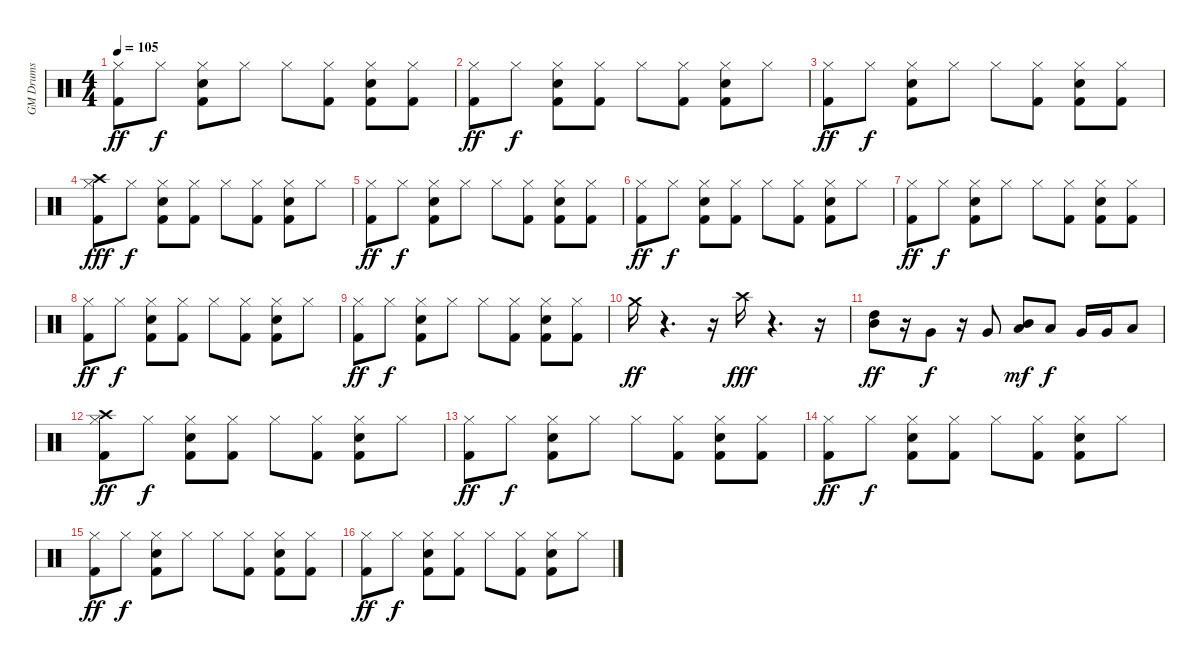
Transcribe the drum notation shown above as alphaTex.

\track ("GM Drums" "GM Drums") {instrument percussion}
\staff {score}
\articulation defaults
\ts (4 4)
\tempo 105
\clef neutral
\ks c
("Kick (hit) 2" "Hi-Hat (closed)").8{dy ff} "Hi-Hat (closed)".8{dy f} ("Kick (hit) 2" "Electric Snare (hit)" "Hi-Hat (closed)").8 "Hi-Hat (closed)".8 "Hi-Hat (closed)".8 ("Kick (hit) 2" "Hi-Hat (closed)").8 ("Kick (hit) 2" "Electric Snare (hit)" "Hi-Hat (closed)").8 ("Kick (hit) 2" "Hi-Hat (closed)").8 |
("Kick (hit) 2" "Hi-Hat (closed)").8{dy ff} "Hi-Hat (closed)".8{dy f} ("Kick (hit) 2" "Electric Snare (hit)" "Hi-Hat (closed)").8 ("Kick (hit) 2" "Hi-Hat (closed)").8 "Hi-Hat (closed)".8 ("Kick (hit) 2" "Hi-Hat (closed)").8 ("Kick (hit) 2" "Electric Snare (hit)" "Hi-Hat (closed)").8 "Hi-Hat (closed)".8 |
("Kick (hit) 2" "Hi-Hat (closed)").8{dy ff} "Hi-Hat (closed)".8{dy f} ("Kick (hit) 2" "Electric Snare (hit)" "Hi-Hat (closed)").8 "Hi-Hat (closed)".8 "Hi-Hat (closed)".8 ("Kick (hit) 2" "Hi-Hat (closed)").8 ("Kick (hit) 2" "Electric Snare (hit)" "Hi-Hat (closed)").8 ("Kick (hit) 2" "Hi-Hat (closed)").8 |
("Kick (hit) 2" "Hi-Hat (closed)" "Crash high (hit)").8{dy fff} "Hi-Hat (closed)".8{dy f} ("Kick (hit) 2" "Electric Snare (hit)" "Hi-Hat (closed)").8 ("Kick (hit) 2" "Hi-Hat (closed)").8 "Hi-Hat (closed)".8 ("Kick (hit) 2" "Hi-Hat (closed)").8 ("Kick (hit) 2" "Electric Snare (hit)" "Hi-Hat (closed)").8 "Hi-Hat (closed)".8 |
("Kick (hit) 2" "Hi-Hat (closed)").8{dy ff} "Hi-Hat (closed)".8{dy f} ("Kick (hit) 2" "Electric Snare (hit)" "Hi-Hat (closed)").8 "Hi-Hat (closed)".8 "Hi-Hat (closed)".8 ("Kick (hit) 2" "Hi-Hat (closed)").8 ("Kick (hit) 2" "Electric Snare (hit)" "Hi-Hat (closed)").8 ("Kick (hit) 2" "Hi-Hat (closed)").8 |
("Kick (hit) 2" "Hi-Hat (closed)").8{dy ff} "Hi-Hat (closed)".8{dy f} ("Kick (hit) 2" "Electric Snare (hit)" "Hi-Hat (closed)").8 ("Kick (hit) 2" "Hi-Hat (closed)").8 "Hi-Hat (closed)".8 ("Kick (hit) 2" "Hi-Hat (closed)").8 ("Kick (hit) 2" "Electric Snare (hit)" "Hi-Hat (closed)").8 "Hi-Hat (closed)".8 |
("Kick (hit) 2" "Hi-Hat (closed)").8{dy ff} "Hi-Hat (closed)".8{dy f} ("Kick (hit) 2" "Electric Snare (hit)" "Hi-Hat (closed)").8 "Hi-Hat (closed)".8 "Hi-Hat (closed)".8 ("Kick (hit) 2" "Hi-Hat (closed)").8 ("Kick (hit) 2" "Electric Snare (hit)" "Hi-Hat (closed)").8 ("Kick (hit) 2" "Hi-Hat (closed)").8 |
("Kick (hit) 2" "Hi-Hat (closed)").8{dy ff} "Hi-Hat (closed)".8{dy f} ("Kick (hit) 2" "Electric Snare (hit)" "Hi-Hat (closed)").8 ("Kick (hit) 2" "Hi-Hat (closed)").8 "Hi-Hat (closed)".8 ("Kick (hit) 2" "Hi-Hat (closed)").8 ("Kick (hit) 2" "Electric Snare (hit)" "Hi-Hat (closed)").8 "Hi-Hat (closed)".8 |
("Kick (hit) 2" "Hi-Hat (closed)").8{dy ff} "Hi-Hat (closed)".8{dy f} ("Kick (hit) 2" "Electric Snare (hit)" "Hi-Hat (closed)").8 "Hi-Hat (closed)".8 "Hi-Hat (closed)".8 ("Kick (hit) 2" "Hi-Hat (closed)").8 ("Kick (hit) 2" "Electric Snare (hit)" "Hi-Hat (closed)").8 ("Kick (hit) 2" "Hi-Hat (closed)").8 |
"Crash medium (hit)".16{dy ff} r.4{d} r.16 "Crash high (hit)".16{dy fff} r.4{d} r.16 |
("Mid Tom (hit)" "High Tom (hit)").8{dy ff} r.16 "Very Low Tom (hit)".8{dy f} r.16 "Very Low Tom (hit)".8 ("Low Tom (hit)" "Mid Tom (hit)").8{dy mf} "Low Tom (hit)".8{dy f} "Very Low Tom (hit)".16 "Very Low Tom (hit)".16 "Low Floor Tom (hit)".8 |
("Crash high (hit)" "Kick (hit) 2" "Hi-Hat (closed)").8{dy ff} "Hi-Hat (closed)".8{dy f} ("Kick (hit) 2" "Electric Snare (hit)" "Hi-Hat (closed)").8 ("Kick (hit) 2" "Hi-Hat (closed)").8 "Hi-Hat (closed)".8 ("Kick (hit) 2" "Hi-Hat (closed)").8 ("Kick (hit) 2" "Electric Snare (hit)" "Hi-Hat (closed)").8 "Hi-Hat (closed)".8 |
("Kick (hit) 2" "Hi-Hat (closed)").8{dy ff} "Hi-Hat (closed)".8{dy f} ("Kick (hit) 2" "Electric Snare (hit)" "Hi-Hat (closed)").8 "Hi-Hat (closed)".8 "Hi-Hat (closed)".8 ("Kick (hit) 2" "Hi-Hat (closed)").8 ("Kick (hit) 2" "Electric Snare (hit)" "Hi-Hat (closed)").8 ("Kick (hit) 2" "Hi-Hat (closed)").8 |
("Kick (hit) 2" "Hi-Hat (closed)").8{dy ff} "Hi-Hat (closed)".8{dy f} ("Kick (hit) 2" "Electric Snare (hit)" "Hi-Hat (closed)").8 ("Kick (hit) 2" "Hi-Hat (closed)").8 "Hi-Hat (closed)".8 ("Kick (hit) 2" "Hi-Hat (closed)").8 ("Kick (hit) 2" "Electric Snare (hit)" "Hi-Hat (closed)").8 "Hi-Hat (closed)".8 |
("Kick (hit) 2" "Hi-Hat (closed)").8{dy ff} "Hi-Hat (closed)".8{dy f} ("Kick (hit) 2" "Electric Snare (hit)" "Hi-Hat (closed)").8 "Hi-Hat (closed)".8 "Hi-Hat (closed)".8 ("Kick (hit) 2" "Hi-Hat (closed)").8 ("Kick (hit) 2" "Electric Snare (hit)" "Hi-Hat (closed)").8 ("Kick (hit) 2" "Hi-Hat (closed)").8 |
("Kick (hit) 2" "Hi-Hat (closed)").8{dy ff} "Hi-Hat (closed)".8{dy f} ("Kick (hit) 2" "Electric Snare (hit)" "Hi-Hat (closed)").8 ("Kick (hit) 2" "Hi-Hat (closed)").8 "Hi-Hat (closed)".8 ("Kick (hit) 2" "Hi-Hat (closed)").8 ("Kick (hit) 2" "Electric Snare (hit)" "Hi-Hat (closed)").8 "Hi-Hat (closed)".8
